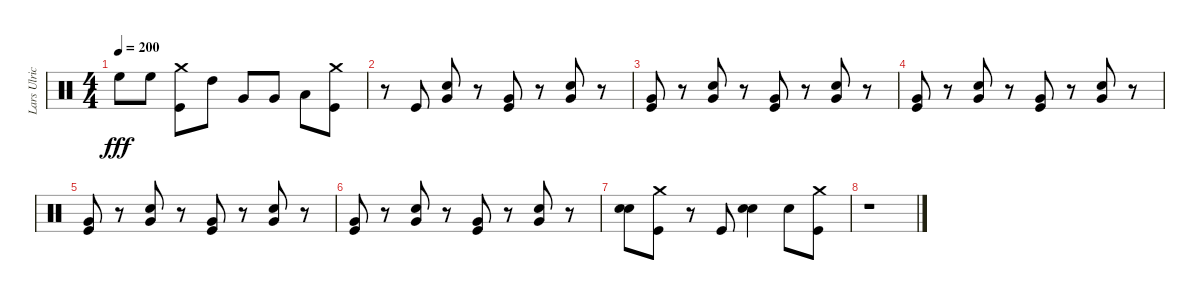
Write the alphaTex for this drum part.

\track ("Lars Ulrich" "Lars Ulric") {instrument percussion}
\staff {score}
\articulation defaults
\ts (4 4)
\tempo 200
\clef neutral
\ks c "High Floor Tom (hit)".8{dy fff} "High Floor Tom (hit)".8
("Crash medium (hit)" "Kick (hit)").8 "High Tom (hit)".8 "Very Low Tom (hit)".8 "Very Low Tom (hit)".8 "Low Floor Tom (hit)".8 ("Crash medium (hit)" "Kick (hit)").8 |
r.8 "Kick (hit)".8 ("Very Low Tom (hit)" "Snare (hit) 2").8 r.8 ("Kick (hit)" "Very Low Tom (hit)").8 r.8 ("Snare (hit) 2" "Very Low Tom (hit)").8 r.8 |
("Very Low Tom (hit)" "Kick (hit)").8 r.8 ("Very Low Tom (hit)" "Snare (hit) 2").8 r.8 ("Very Low Tom (hit)" "Kick (hit)").8 r.8 ("Very Low Tom (hit)" "Snare (hit) 2").8 r.8 |
("Very Low Tom (hit)" "Kick (hit)").8 r.8 ("Very Low Tom (hit)" "Snare (hit) 2").8 r.8 ("Very Low Tom (hit)" "Kick (hit)").8 r.8 ("Very Low Tom (hit)" "Snare (hit) 2").8 r.8 |
("Very Low Tom (hit)" "Kick (hit)").8 r.8 ("Very Low Tom (hit)" "Snare (hit) 2").8 r.8 ("Very Low Tom (hit)" "Kick (hit)").8 r.8 ("Very Low Tom (hit)" "Snare (hit) 2").8 r.8 |
("Very Low Tom (hit)" "Kick (hit)").8 r.8 ("Very Low Tom (hit)" "Snare (hit) 2").8 r.8 ("Very Low Tom (hit)" "Kick (hit)").8 r.8 ("Very Low Tom (hit)" "Snare (hit) 2").8 r.8 |
("Snare (hit) 2" "Snare (hit) 2").8 ("Crash medium (hit)" "Kick (hit)").8 r.8 "Kick (hit)".8 ("Snare (hit) 2" "Snare (hit) 2").4 "Snare (hit) 2".8 ("Crash medium (hit)" "Kick (hit)").8 |
r.1
